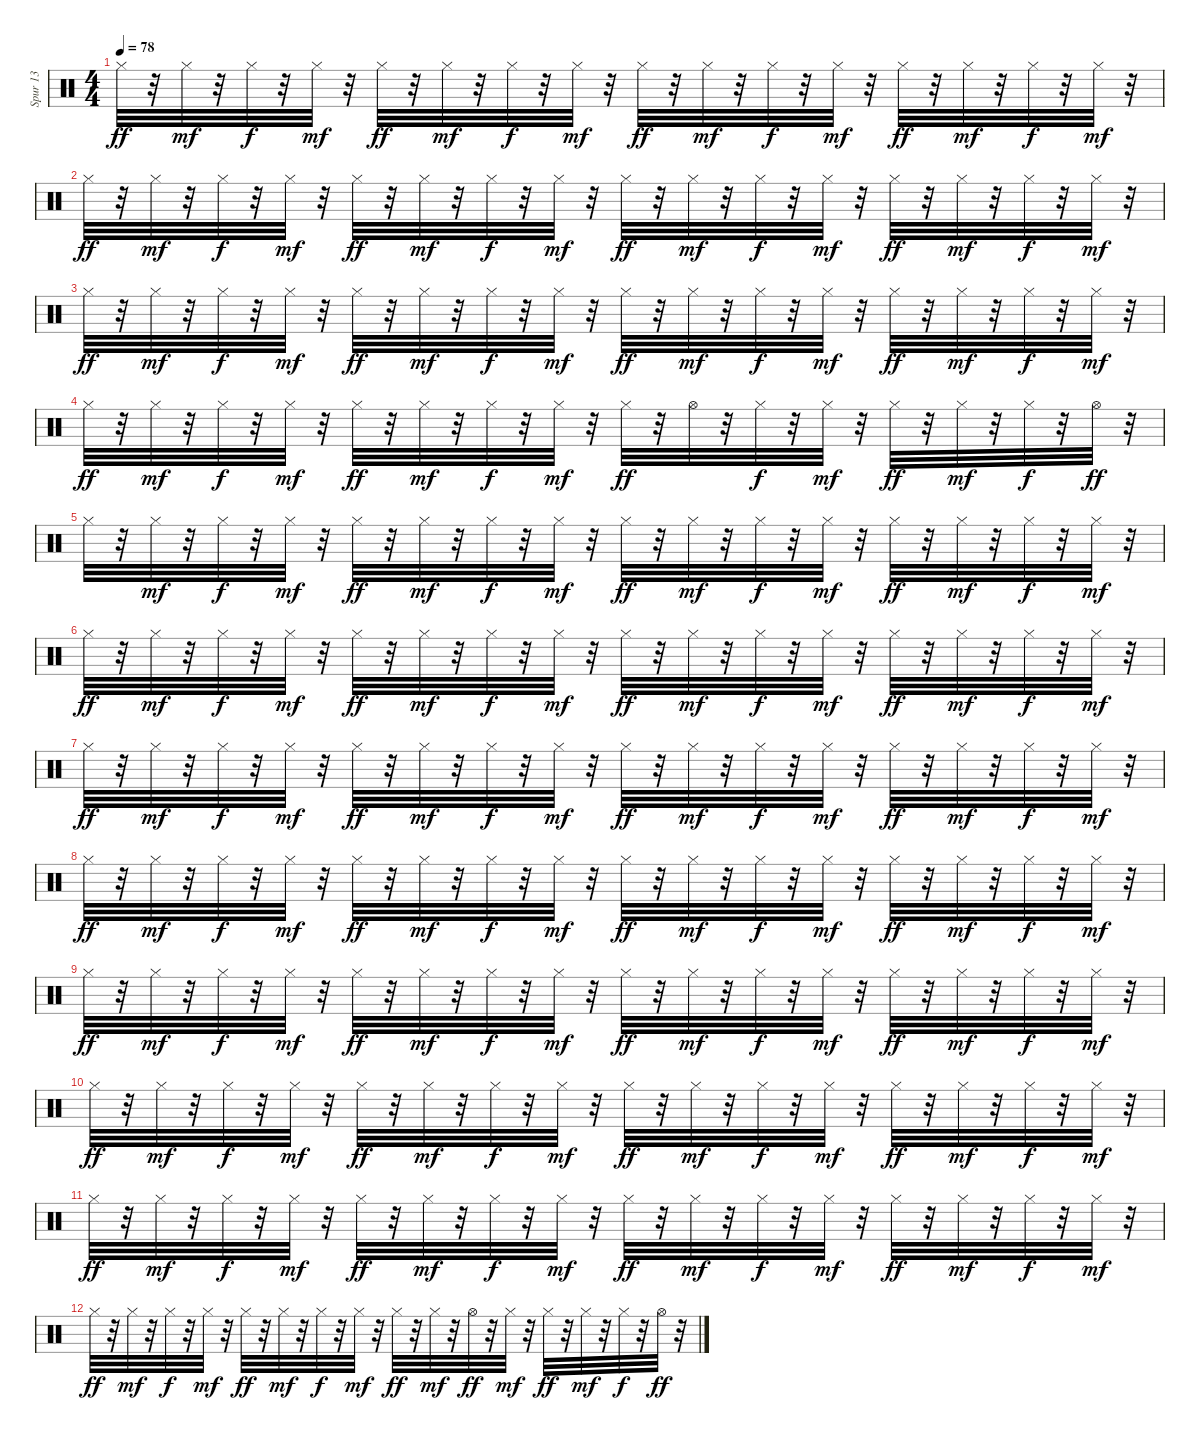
\track ("Spur 13" "Spur 13") {instrument percussion}
\staff {score}
\articulation defaults
\ts (4 4)
\tempo 78
\clef neutral
\ks c "Hi-Hat (closed)".32{dy ff}
r.32 "Hi-Hat (closed)".32{dy mf} r.32 "Hi-Hat (closed)".32{dy f} r.32 "Hi-Hat (closed)".32{dy mf} r.32 "Hi-Hat (closed)".32{dy ff} r.32 "Hi-Hat (closed)".32{dy mf} r.32 "Hi-Hat (closed)".32{dy f} r.32 "Hi-Hat (closed)".32{dy mf} r.32 "Hi-Hat (closed)".32{dy ff} r.32 "Hi-Hat (closed)".32{dy mf} r.32 "Hi-Hat (closed)".32{dy f} r.32 "Hi-Hat (closed)".32{dy mf} r.32 "Hi-Hat (closed)".32{dy ff} r.32 "Hi-Hat (closed)".32{dy mf} r.32 "Hi-Hat (closed)".32{dy f} r.32 "Hi-Hat (closed)".32{dy mf} r.32 |
"Hi-Hat (closed)".32{dy ff} r.32 "Hi-Hat (closed)".32{dy mf} r.32 "Hi-Hat (closed)".32{dy f} r.32 "Hi-Hat (closed)".32{dy mf} r.32 "Hi-Hat (closed)".32{dy ff} r.32 "Hi-Hat (closed)".32{dy mf} r.32 "Hi-Hat (closed)".32{dy f} r.32 "Hi-Hat (closed)".32{dy mf} r.32 "Hi-Hat (closed)".32{dy ff} r.32 "Hi-Hat (closed)".32{dy mf} r.32 "Hi-Hat (closed)".32{dy f} r.32 "Hi-Hat (closed)".32{dy mf} r.32 "Hi-Hat (closed)".32{dy ff} r.32 "Hi-Hat (closed)".32{dy mf} r.32 "Hi-Hat (closed)".32{dy f} r.32 "Hi-Hat (closed)".32{dy mf} r.32 |
"Hi-Hat (closed)".32{dy ff} r.32 "Hi-Hat (closed)".32{dy mf} r.32 "Hi-Hat (closed)".32{dy f} r.32 "Hi-Hat (closed)".32{dy mf} r.32 "Hi-Hat (closed)".32{dy ff} r.32 "Hi-Hat (closed)".32{dy mf} r.32 "Hi-Hat (closed)".32{dy f} r.32 "Hi-Hat (closed)".32{dy mf} r.32 "Hi-Hat (closed)".32{dy ff} r.32 "Hi-Hat (closed)".32{dy mf} r.32 "Hi-Hat (closed)".32{dy f} r.32 "Hi-Hat (closed)".32{dy mf} r.32 "Hi-Hat (closed)".32{dy ff} r.32 "Hi-Hat (closed)".32{dy mf} r.32 "Hi-Hat (closed)".32{dy f} r.32 "Hi-Hat (closed)".32{dy mf} r.32 |
"Hi-Hat (closed)".32{dy ff} r.32 "Hi-Hat (closed)".32{dy mf} r.32 "Hi-Hat (closed)".32{dy f} r.32 "Hi-Hat (closed)".32{dy mf} r.32 "Hi-Hat (closed)".32{dy ff} r.32 "Hi-Hat (closed)".32{dy mf} r.32 "Hi-Hat (closed)".32{dy f} r.32 "Hi-Hat (closed)".32{dy mf} r.32 "Hi-Hat (closed)".32{dy ff} r.32 "Hi-Hat (open)".32 r.32 "Hi-Hat (closed)".32{dy f} r.32 "Hi-Hat (closed)".32{dy mf} r.32 "Hi-Hat (closed)".32{dy ff} r.32 "Hi-Hat (closed)".32{dy mf} r.32 "Hi-Hat (closed)".32{dy f} r.32 "Hi-Hat (open)".32{dy ff} r.32 |
"Hi-Hat (closed)".32 r.32 "Hi-Hat (closed)".32{dy mf} r.32 "Hi-Hat (closed)".32{dy f} r.32 "Hi-Hat (closed)".32{dy mf} r.32 "Hi-Hat (closed)".32{dy ff} r.32 "Hi-Hat (closed)".32{dy mf} r.32 "Hi-Hat (closed)".32{dy f} r.32 "Hi-Hat (closed)".32{dy mf} r.32 "Hi-Hat (closed)".32{dy ff} r.32 "Hi-Hat (closed)".32{dy mf} r.32 "Hi-Hat (closed)".32{dy f} r.32 "Hi-Hat (closed)".32{dy mf} r.32 "Hi-Hat (closed)".32{dy ff} r.32 "Hi-Hat (closed)".32{dy mf} r.32 "Hi-Hat (closed)".32{dy f} r.32 "Hi-Hat (closed)".32{dy mf} r.32 |
"Hi-Hat (closed)".32{dy ff} r.32 "Hi-Hat (closed)".32{dy mf} r.32 "Hi-Hat (closed)".32{dy f} r.32 "Hi-Hat (closed)".32{dy mf} r.32 "Hi-Hat (closed)".32{dy ff} r.32 "Hi-Hat (closed)".32{dy mf} r.32 "Hi-Hat (closed)".32{dy f} r.32 "Hi-Hat (closed)".32{dy mf} r.32 "Hi-Hat (closed)".32{dy ff} r.32 "Hi-Hat (closed)".32{dy mf} r.32 "Hi-Hat (closed)".32{dy f} r.32 "Hi-Hat (closed)".32{dy mf} r.32 "Hi-Hat (closed)".32{dy ff} r.32 "Hi-Hat (closed)".32{dy mf} r.32 "Hi-Hat (closed)".32{dy f} r.32 "Hi-Hat (closed)".32{dy mf} r.32 |
"Hi-Hat (closed)".32{dy ff} r.32 "Hi-Hat (closed)".32{dy mf} r.32 "Hi-Hat (closed)".32{dy f} r.32 "Hi-Hat (closed)".32{dy mf} r.32 "Hi-Hat (closed)".32{dy ff} r.32 "Hi-Hat (closed)".32{dy mf} r.32 "Hi-Hat (closed)".32{dy f} r.32 "Hi-Hat (closed)".32{dy mf} r.32 "Hi-Hat (closed)".32{dy ff} r.32 "Hi-Hat (closed)".32{dy mf} r.32 "Hi-Hat (closed)".32{dy f} r.32 "Hi-Hat (closed)".32{dy mf} r.32 "Hi-Hat (closed)".32{dy ff} r.32 "Hi-Hat (closed)".32{dy mf} r.32 "Hi-Hat (closed)".32{dy f} r.32 "Hi-Hat (closed)".32{dy mf} r.32 |
"Hi-Hat (closed)".32{dy ff} r.32 "Hi-Hat (closed)".32{dy mf} r.32 "Hi-Hat (closed)".32{dy f} r.32 "Hi-Hat (closed)".32{dy mf} r.32 "Hi-Hat (closed)".32{dy ff} r.32 "Hi-Hat (closed)".32{dy mf} r.32 "Hi-Hat (closed)".32{dy f} r.32 "Hi-Hat (closed)".32{dy mf} r.32 "Hi-Hat (closed)".32{dy ff} r.32 "Hi-Hat (closed)".32{dy mf} r.32 "Hi-Hat (closed)".32{dy f} r.32 "Hi-Hat (closed)".32{dy mf} r.32 "Hi-Hat (closed)".32{dy ff} r.32 "Hi-Hat (closed)".32{dy mf} r.32 "Hi-Hat (closed)".32{dy f} r.32 "Hi-Hat (closed)".32{dy mf} r.32 |
"Hi-Hat (closed)".32{dy ff} r.32 "Hi-Hat (closed)".32{dy mf} r.32 "Hi-Hat (closed)".32{dy f} r.32 "Hi-Hat (closed)".32{dy mf} r.32 "Hi-Hat (closed)".32{dy ff} r.32 "Hi-Hat (closed)".32{dy mf} r.32 "Hi-Hat (closed)".32{dy f} r.32 "Hi-Hat (closed)".32{dy mf} r.32 "Hi-Hat (closed)".32{dy ff} r.32 "Hi-Hat (closed)".32{dy mf} r.32 "Hi-Hat (closed)".32{dy f} r.32 "Hi-Hat (closed)".32{dy mf} r.32 "Hi-Hat (closed)".32{dy ff} r.32 "Hi-Hat (closed)".32{dy mf} r.32 "Hi-Hat (closed)".32{dy f} r.32 "Hi-Hat (closed)".32{dy mf} r.32 |
"Hi-Hat (closed)".32{dy ff} r.32 "Hi-Hat (closed)".32{dy mf} r.32 "Hi-Hat (closed)".32{dy f} r.32 "Hi-Hat (closed)".32{dy mf} r.32 "Hi-Hat (closed)".32{dy ff} r.32 "Hi-Hat (closed)".32{dy mf} r.32 "Hi-Hat (closed)".32{dy f} r.32 "Hi-Hat (closed)".32{dy mf} r.32 "Hi-Hat (closed)".32{dy ff} r.32 "Hi-Hat (closed)".32{dy mf} r.32 "Hi-Hat (closed)".32{dy f} r.32 "Hi-Hat (closed)".32{dy mf} r.32 "Hi-Hat (closed)".32{dy ff} r.32 "Hi-Hat (closed)".32{dy mf} r.32 "Hi-Hat (closed)".32{dy f} r.32 "Hi-Hat (closed)".32{dy mf} r.32 |
"Hi-Hat (closed)".32{dy ff} r.32 "Hi-Hat (closed)".32{dy mf} r.32 "Hi-Hat (closed)".32{dy f} r.32 "Hi-Hat (closed)".32{dy mf} r.32 "Hi-Hat (closed)".32{dy ff} r.32 "Hi-Hat (closed)".32{dy mf} r.32 "Hi-Hat (closed)".32{dy f} r.32 "Hi-Hat (closed)".32{dy mf} r.32 "Hi-Hat (closed)".32{dy ff} r.32 "Hi-Hat (closed)".32{dy mf} r.32 "Hi-Hat (closed)".32{dy f} r.32 "Hi-Hat (closed)".32{dy mf} r.32 "Hi-Hat (closed)".32{dy ff} r.32 "Hi-Hat (closed)".32{dy mf} r.32 "Hi-Hat (closed)".32{dy f} r.32 "Hi-Hat (closed)".32{dy mf} r.32 |
"Hi-Hat (closed)".32{dy ff} r.32 "Hi-Hat (closed)".32{dy mf} r.32 "Hi-Hat (closed)".32{dy f} r.32 "Hi-Hat (closed)".32{dy mf} r.32 "Hi-Hat (closed)".32{dy ff} r.32 "Hi-Hat (closed)".32{dy mf} r.32 "Hi-Hat (closed)".32{dy f} r.32 "Hi-Hat (closed)".32{dy mf} r.32 "Hi-Hat (closed)".32{dy ff} r.32 "Hi-Hat (closed)".32{dy mf} r.32 "Hi-Hat (open)".32{dy ff} r.32 "Hi-Hat (closed)".32{dy mf} r.32 "Hi-Hat (closed)".32{dy ff} r.32 "Hi-Hat (closed)".32{dy mf} r.32 "Hi-Hat (closed)".32{dy f} r.32 "Hi-Hat (open)".32{dy ff} r.32
